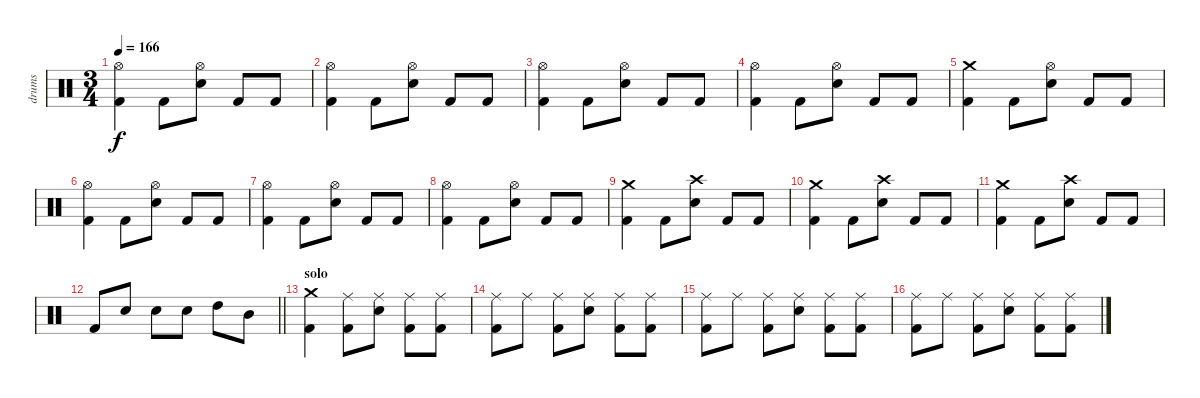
\track ("drums" "drums") {instrument percussion}
\staff {score}
\articulation defaults
\ts (3 4)
\tempo 166
\clef neutral
\ks c
("Hi-Hat (open)" "Kick (hit) 2").4{dy f} "Kick (hit) 2".8 ("Hi-Hat (open)" "Electric Snare (hit)").8 "Kick (hit) 2".8 "Kick (hit) 2".8 |
("Hi-Hat (open)" "Kick (hit) 2").4 "Kick (hit) 2".8 ("Hi-Hat (open)" "Electric Snare (hit)").8 "Kick (hit) 2".8 "Kick (hit) 2".8 |
("Hi-Hat (open)" "Kick (hit) 2").4 "Kick (hit) 2".8 ("Hi-Hat (open)" "Electric Snare (hit)").8 "Kick (hit) 2".8 "Kick (hit) 2".8 |
("Hi-Hat (open)" "Kick (hit) 2").4 "Kick (hit) 2".8 ("Hi-Hat (open)" "Electric Snare (hit)").8 "Kick (hit) 2".8 "Kick (hit) 2".8 |
("Crash medium (hit)" "Kick (hit) 2").4 "Kick (hit) 2".8 ("Hi-Hat (open)" "Electric Snare (hit)").8 "Kick (hit) 2".8 "Kick (hit) 2".8 |
("Hi-Hat (open)" "Kick (hit) 2").4 "Kick (hit) 2".8 ("Hi-Hat (open)" "Electric Snare (hit)").8 "Kick (hit) 2".8 "Kick (hit) 2".8 |
("Hi-Hat (open)" "Kick (hit) 2").4 "Kick (hit) 2".8 ("Hi-Hat (open)" "Electric Snare (hit)").8 "Kick (hit) 2".8 "Kick (hit) 2".8 |
("Hi-Hat (open)" "Kick (hit) 2").4 "Kick (hit) 2".8 ("Hi-Hat (open)" "Electric Snare (hit)").8 "Kick (hit) 2".8 "Kick (hit) 2".8 |
("Crash medium (hit)" "Kick (hit) 2").4 "Kick (hit) 2".8 ("Crash high (hit)" "Electric Snare (hit)").8 "Kick (hit) 2".8 "Kick (hit) 2".8 |
("Crash medium (hit)" "Kick (hit) 2").4 "Kick (hit) 2".8 ("Crash high (hit)" "Electric Snare (hit)").8 "Kick (hit) 2".8 "Kick (hit) 2".8 |
("Crash medium (hit)" "Kick (hit) 2").4 "Kick (hit) 2".8 ("Crash high (hit)" "Electric Snare (hit)").8 "Kick (hit) 2".8 "Kick (hit) 2".8 |
\barLineRight lightlight "Kick (hit) 2".8 "Electric Snare (hit)".8 "Electric Snare (hit)".8 "Electric Snare (hit)".8 "High Tom (hit)".8 "Mid Tom (hit)".8
|
\section ("" "solo")
("Crash medium (hit)" "Kick (hit) 2").4 ("Ride (middle)" "Kick (hit) 2").8 ("Ride (middle)" "Electric Snare (hit)").8 ("Ride (middle)" "Kick (hit) 2").8 ("Ride (middle)" "Kick (hit) 2").8 |
("Ride (middle)" "Kick (hit) 2").8 "Ride (middle)".8 ("Ride (middle)" "Kick (hit) 2").8 ("Ride (middle)" "Electric Snare (hit)").8 ("Ride (middle)" "Kick (hit) 2").8 ("Ride (middle)" "Kick (hit) 2").8 |
("Ride (middle)" "Kick (hit) 2").8 "Ride (middle)".8 ("Ride (middle)" "Kick (hit) 2").8 ("Ride (middle)" "Electric Snare (hit)").8 ("Ride (middle)" "Kick (hit) 2").8 ("Ride (middle)" "Kick (hit) 2").8 |
("Ride (middle)" "Kick (hit) 2").8 "Ride (middle)".8 ("Ride (middle)" "Kick (hit) 2").8 ("Ride (middle)" "Electric Snare (hit)").8 ("Ride (middle)" "Kick (hit) 2").8 ("Ride (middle)" "Kick (hit) 2").8
